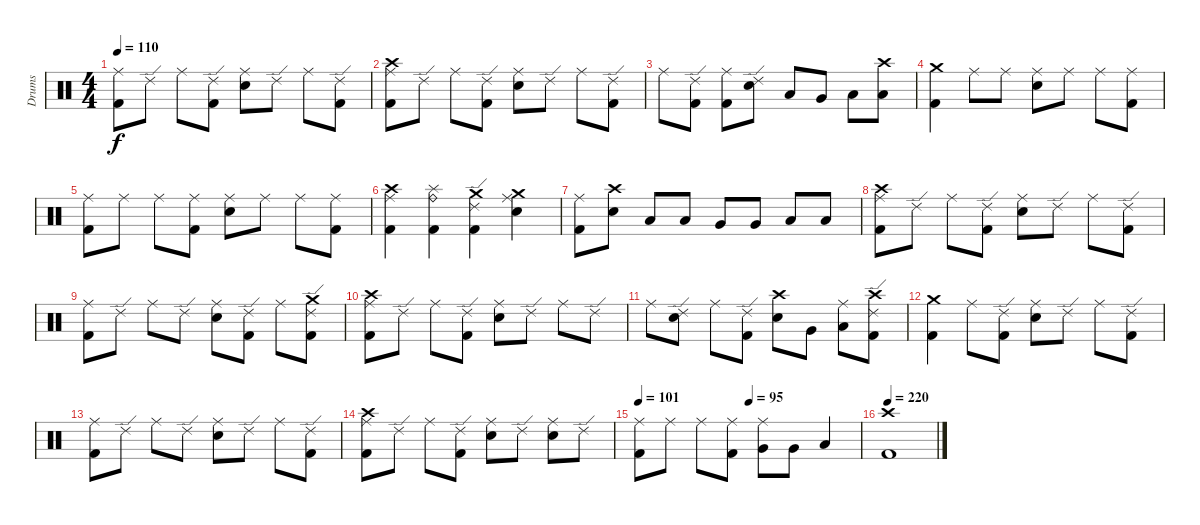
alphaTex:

\track ("Drums" "Drums") {instrument percussion}
\staff {score}
\articulation defaults
\ts (4 4)
\tempo 110
\clef neutral
\ks c
("Ride (middle)" "Kick (hit) 2").8{dy f} "Ride (edge) 2".8 "Ride (middle)".8 ("Ride (edge) 2" "Kick (hit) 2").8 ("Ride (middle)" "Electric Snare (hit)").8 "Ride (edge) 2".8 "Ride (middle)".8 ("Ride (edge) 2" "Kick (hit) 2").8 |
("Crash high (hit)" "Ride (middle)" "Kick (hit) 2").8 "Ride (edge) 2".8 "Ride (middle)".8 ("Ride (edge) 2" "Kick (hit) 2").8 ("Ride (middle)" "Electric Snare (hit)").8 "Ride (edge) 2".8 "Ride (middle)".8 ("Ride (edge) 2" "Kick (hit) 2").8 |
"Ride (middle)".8 ("Ride (edge) 2" "Kick (hit) 2").8 ("Ride (middle)" "Kick (hit) 2").8 ("Ride (edge) 2" "Electric Snare (hit)").8 "Low Tom (hit)".8 "Very Low Tom (hit)".8 "Low Floor Tom (hit)".8 ("Crash high (hit)" "Low Floor Tom (hit)").8 |
("Crash medium (hit)" "Kick (hit) 2").4 "Ride (middle)".8 "Ride (middle)".8 ("Ride (middle)" "Electric Snare (hit)").8 "Ride (middle)".8 "Ride (middle)".8 ("Ride (middle)" "Kick (hit) 2").8 |
("Ride (middle)" "Kick (hit) 2").8 "Ride (middle)".8 "Ride (middle)".8 ("Ride (middle)" "Kick (hit) 2").8 ("Ride (middle)" "Electric Snare (hit)").8 "Ride (middle)".8 "Ride (middle)".8 ("Ride (middle)" "Kick (hit) 2").8 |
("Crash high (hit)" "Ride (middle)" "Kick (hit) 2").4 ("Splash (hit)" "Ride (bell)" "Kick (hit) 2").4 ("Crash medium (hit)" "Ride (edge) 2" "Kick (hit) 2").4 ("Crash medium (hit)" "Ride (middle)" "Electric Snare (hit)").4 |
("Ride (middle)" "Kick (hit) 2").8 ("Crash high (hit)" "Electric Snare (hit)").8 "Low Tom (hit)".8 "Low Tom (hit)".8 "Very Low Tom (hit)".8 "Very Low Tom (hit)".8 "Low Floor Tom (hit)".8 "Low Floor Tom (hit)".8 |
("Crash high (hit)" "Ride (middle)" "Kick (hit) 2").8 "Ride (edge) 2".8 "Ride (middle)".8 ("Ride (edge) 2" "Kick (hit) 2").8 ("Ride (middle)" "Electric Snare (hit)").8 "Ride (edge) 2".8 "Ride (middle)".8 ("Ride (edge) 2" "Kick (hit) 2").8 |
("Ride (middle)" "Kick (hit) 2").8 "Ride (edge) 2".8 "Ride (middle)".8 "Ride (edge) 2".8 ("Ride (middle)" "Electric Snare (hit)").8 ("Ride (edge) 2" "Kick (hit) 2").8 "Ride (middle)".8 ("Crash medium (hit)" "Ride (edge) 2" "Kick (hit) 2").8 |
("Crash high (hit)" "Ride (middle)" "Kick (hit) 2").8 "Ride (edge) 2".8 "Ride (middle)".8 ("Ride (edge) 2" "Kick (hit) 2").8 ("Ride (middle)" "Electric Snare (hit)").8 "Ride (edge) 2".8 "Ride (middle)".8 "Ride (edge) 2".8 |
"Ride (middle)".8 ("Ride (edge) 2" "Electric Snare (hit)").8 "Ride (middle)".8 ("Ride (edge) 2" "Kick (hit) 2").8 ("Crash high (hit)" "Electric Snare (hit)").8 "Very Low Tom (hit)".8 ("Ride (middle)" "Low Floor Tom (hit)").8 ("Crash high (hit)" "Ride (edge) 2" "Kick (hit) 2").8 |
("Crash medium (hit)" "Kick (hit) 2").4 "Ride (middle)".8 ("Ride (edge) 2" "Kick (hit) 2").8 ("Ride (middle)" "Electric Snare (hit)").8 "Ride (edge) 2".8 "Ride (middle)".8 ("Ride (edge) 2" "Kick (hit) 2").8 |
("Ride (middle)" "Kick (hit) 2").8 "Ride (edge) 2".8 "Ride (middle)".8 "Ride (edge) 2".8 ("Ride (middle)" "Electric Snare (hit)").8 "Ride (edge) 2".8 "Ride (middle)".8 ("Ride (edge) 2" "Kick (hit) 2").8 |
("Crash high (hit)" "Ride (middle)" "Kick (hit) 2").8 "Ride (edge) 2".8 "Ride (middle)".8 ("Ride (edge) 2" "Kick (hit) 2").8 ("Ride (middle)" "Electric Snare (hit)").8 "Ride (edge) 2".8 ("Ride (middle)" "Electric Snare (hit)").8 "Ride (edge) 2".8 |
\tempo 90
\tempo 101
\tempo (95 0.5)
("Ride (middle)" "Kick (hit) 2").8 "Ride (middle)".8 "Ride (middle)".8 ("Ride (middle)" "Kick (hit) 2").8 ("Ride (middle)" "Very Low Tom (hit)").8 "Very Low Tom (hit)".8 "Low Floor Tom (hit)".4 |
\tempo 220
("Crash high (hit)" "Kick (hit) 2").1
